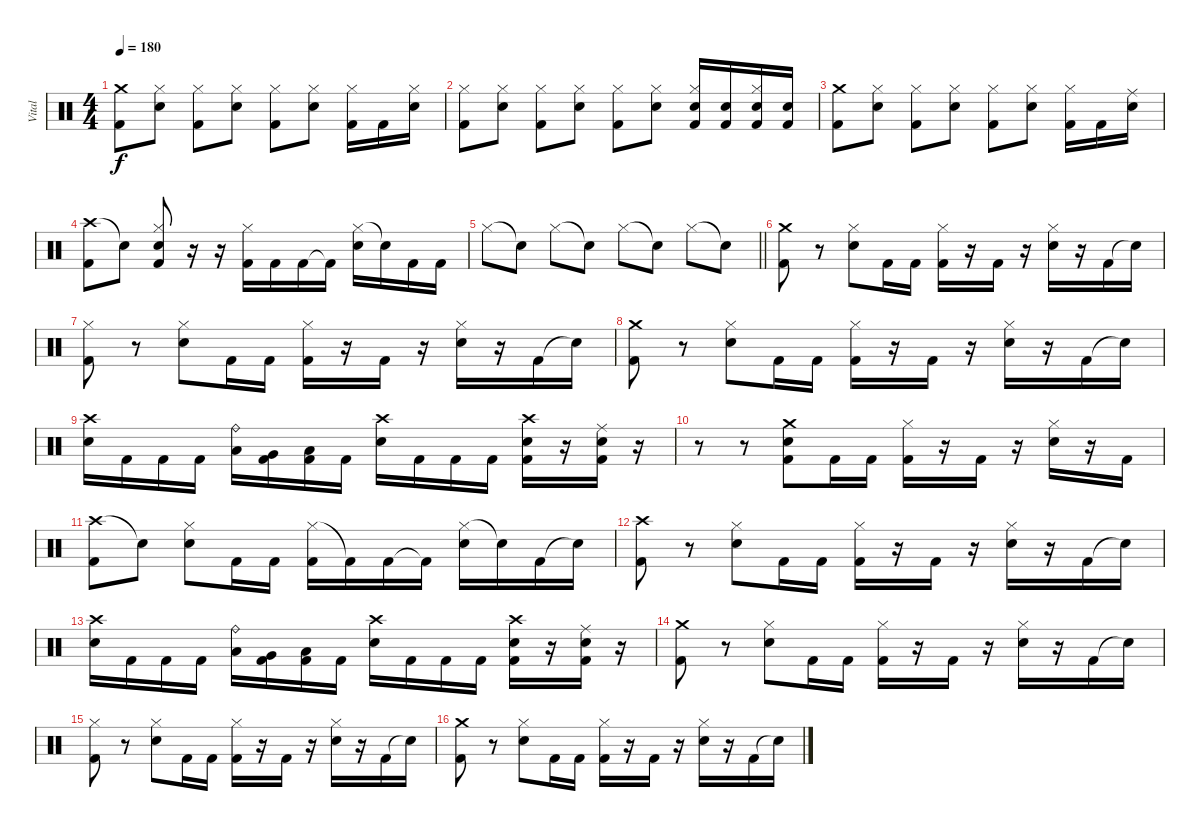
\track ("Vital" "Vital") {instrument percussion}
\staff {score}
\articulation defaults
\ts (4 4)
\tempo 180
\clef neutral
\ks c
("Crash medium (hit)" "Kick (hit) 2").8{dy f} ("Hi-Hat (closed)" "Snare (hit) 2").8 ("Hi-Hat (closed)" "Kick (hit) 2").8 ("Hi-Hat (closed)" "Snare (hit) 2").8 ("Hi-Hat (closed)" "Kick (hit) 2").8 ("Hi-Hat (closed)" "Snare (hit) 2").8 ("Hi-Hat (closed)" "Kick (hit) 2").16 "Kick (hit) 2".16 ("Hi-Hat (closed)" "Snare (hit) 2").16 |
("Hi-Hat (closed)" "Kick (hit) 2").8 ("Hi-Hat (closed)" "Snare (hit) 2").8 ("Hi-Hat (closed)" "Kick (hit) 2").8 ("Hi-Hat (closed)" "Snare (hit) 2").8 ("Hi-Hat (closed)" "Kick (hit) 2").8 ("Hi-Hat (closed)" "Snare (hit) 2").8 ("Hi-Hat (closed)" "Snare (hit) 2" "Kick (hit) 2").16 ("Snare (hit) 2" "Kick (hit) 2").16 ("Hi-Hat (closed)" "Snare (hit) 2" "Kick (hit) 2").16 ("Snare (hit) 2" "Kick (hit) 2").16 |
("Crash medium (hit)" "Kick (hit) 2").8 ("Hi-Hat (closed)" "Snare (hit) 2").8 ("Hi-Hat (closed)" "Kick (hit) 2").8 ("Hi-Hat (closed)" "Snare (hit) 2").8 ("Hi-Hat (closed)" "Kick (hit) 2").8 ("Hi-Hat (closed)" "Snare (hit) 2").8 ("Hi-Hat (closed)" "Kick (hit) 2").16 "Kick (hit) 2".16 ("Ride (middle)" "Snare (hit) 2").16 |
("Crash high (hit)" "Kick (hit) 2").8 "Electric Snare (hit)"{t}.8 ("Hi-Hat (closed)" "Snare (hit) 2" "Kick (hit) 2").8 r.16 r.16 ("Hi-Hat (closed)" "Kick (hit) 2").16 "Kick (hit) 2".16 "Kick (hit) 2".16 "Kick (hit) 2"{t}.16 ("Hi-Hat (closed)" "Snare (hit) 2").16 "Electric Snare (hit)"{t}.16 "Kick (hit) 2".16 "Kick (hit) 2".16 |
\barLineRight lightlight "Hi-Hat (closed)".8 "Snare (hit)"{t}.8 "Hi-Hat (closed)".8 "Snare (hit)"{t}.8 "Hi-Hat (closed)".8 "Snare (hit)"{t}.8 "Hi-Hat (closed)".8 "Snare (hit)"{t}.8
|
("Crash medium (hit)" "Kick (hit) 2").8 r.8 ("Hi-Hat (closed)" "Snare (hit) 2").8 "Kick (hit) 2".16 "Kick (hit) 2".16 ("Hi-Hat (closed)" "Kick (hit) 2").16 r.16 "Kick (hit) 2".16 r.16 ("Hi-Hat (closed)" "Snare (hit) 2").16 r.16 "Kick (hit) 2".16 "Snare (hit)"{t}.16 |
("Hi-Hat (closed)" "Kick (hit) 2").8 r.8 ("Hi-Hat (closed)" "Snare (hit) 2").8 "Kick (hit) 2".16 "Kick (hit) 2".16 ("Hi-Hat (closed)" "Kick (hit) 2").16 r.16 "Kick (hit) 2".16 r.16 ("Hi-Hat (closed)" "Snare (hit) 2").16 r.16 "Kick (hit) 2".16 "Snare (hit)"{t}.16 |
("Crash medium (hit)" "Kick (hit) 2").8 r.8 ("Hi-Hat (closed)" "Snare (hit) 2").8 "Kick (hit) 2".16 "Kick (hit) 2".16 ("Hi-Hat (closed)" "Kick (hit) 2").16 r.16 "Kick (hit) 2".16 r.16 ("Hi-Hat (closed)" "Snare (hit) 2").16 r.16 "Kick (hit) 2".16 "Snare (hit)"{t}.16 |
("Snare (hit) 2" "Crash high (hit)").16 "Kick (hit) 2".16 "Kick (hit) 2".16 "Kick (hit) 2".16 ("Low Tom (hit)" "Ride (bell)").16 ("Very Low Tom (hit)" "Kick (hit) 2").16 ("Low Floor Tom (hit)" "Kick (hit) 2").16 "Kick (hit) 2".16 ("Snare (hit) 2" "Crash high (hit)").16 "Kick (hit) 2".16 "Kick (hit) 2".16 "Kick (hit) 2".16 ("Crash high (hit)" "Snare (hit) 2" "Kick (hit) 2").16 r.16 ("Ride (middle)" "Snare (hit) 2" "Kick (hit) 2").16 r.16 |
r.8 r.8 ("Crash medium (hit)" "Snare (hit) 2" "Kick (hit) 2").8 "Kick (hit) 2".16 "Kick (hit) 2".16 ("Hi-Hat (closed)" "Kick (hit) 2").16 r.16 "Kick (hit) 2".16 r.16 ("Hi-Hat (closed)" "Snare (hit) 2").16 r.16 "Kick (hit) 2".16 |
("Crash high (hit)" "Kick (hit) 2").8 "Electric Snare (hit)"{t}.8 ("Hi-Hat (closed)" "Snare (hit) 2").8 "Kick (hit) 2".16 "Kick (hit) 2".16 ("Hi-Hat (closed)" "Kick (hit) 2").16 "Kick (hit) 2"{t}.16 "Kick (hit) 2".16 "Kick (hit) 2"{t}.16 ("Hi-Hat (closed)" "Snare (hit) 2").16 "Electric Snare (hit)"{t}.16 "Kick (hit) 2".16 "Snare (hit)"{t}.16 |
("Crash high (hit)" "Kick (hit) 2").8 r.8 ("Hi-Hat (closed)" "Snare (hit) 2").8 "Kick (hit) 2".16 "Kick (hit) 2".16 ("Hi-Hat (closed)" "Kick (hit) 2").16 r.16 "Kick (hit) 2".16 r.16 ("Hi-Hat (closed)" "Snare (hit) 2").16 r.16 "Kick (hit) 2".16 "Snare (hit)"{t}.16 |
("Snare (hit) 2" "Crash high (hit)").16 "Kick (hit) 2".16 "Kick (hit) 2".16 "Kick (hit) 2".16 ("Low Tom (hit)" "Ride (bell)").16 ("Very Low Tom (hit)" "Kick (hit) 2").16 ("Low Floor Tom (hit)" "Kick (hit) 2").16 "Kick (hit) 2".16 ("Snare (hit) 2" "Crash high (hit)").16 "Kick (hit) 2".16 "Kick (hit) 2".16 "Kick (hit) 2".16 ("Crash high (hit)" "Snare (hit) 2" "Kick (hit) 2").16 r.16 ("Ride (middle)" "Snare (hit) 2" "Kick (hit) 2").16 r.16 |
("Crash medium (hit)" "Kick (hit) 2").8 r.8 ("Hi-Hat (closed)" "Snare (hit) 2").8 "Kick (hit) 2".16 "Kick (hit) 2".16 ("Hi-Hat (closed)" "Kick (hit) 2").16 r.16 "Kick (hit) 2".16 r.16 ("Hi-Hat (closed)" "Snare (hit) 2").16 r.16 "Kick (hit) 2".16 "Snare (hit)"{t}.16 |
("Hi-Hat (closed)" "Kick (hit) 2").8 r.8 ("Hi-Hat (closed)" "Snare (hit) 2").8 "Kick (hit) 2".16 "Kick (hit) 2".16 ("Hi-Hat (closed)" "Kick (hit) 2").16 r.16 "Kick (hit) 2".16 r.16 ("Hi-Hat (closed)" "Snare (hit) 2").16 r.16 "Kick (hit) 2".16 "Snare (hit)"{t}.16 |
("Crash medium (hit)" "Kick (hit) 2").8 r.8 ("Hi-Hat (closed)" "Snare (hit) 2").8 "Kick (hit) 2".16 "Kick (hit) 2".16 ("Hi-Hat (closed)" "Kick (hit) 2").16 r.16 "Kick (hit) 2".16 r.16 ("Hi-Hat (closed)" "Snare (hit) 2").16 r.16 "Kick (hit) 2".16 "Snare (hit)"{t}.16
